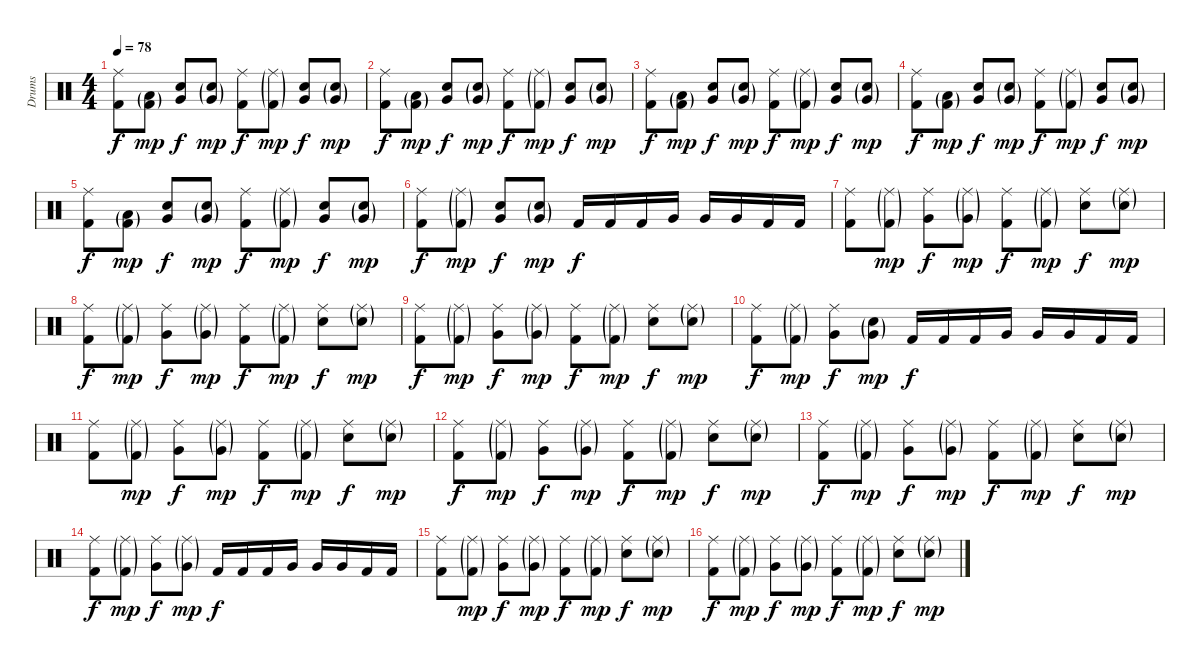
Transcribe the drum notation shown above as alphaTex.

\track ("Drums" "Drums") {instrument percussion}
\staff {score}
\articulation defaults
\ts (4 4)
\tempo 78
\clef neutral
\ks c
("Ride (middle)" "Kick (hit) 2").8{dy f} ("Low Floor Tom (hit)"{g} "Kick (hit) 2"{g}).8{dy mp} ("Snare (hit) 2" "Very Low Tom (hit)").8{dy f} ("Snare (hit) 2"{g} "Very Low Tom (hit)"{g}).8{dy mp} ("Ride (middle)" "Kick (hit) 2").8{dy f} ("Ride (middle)"{g} "Kick (hit) 2"{g}).8{dy mp} ("Snare (hit) 2" "Very Low Tom (hit)").8{dy f} ("Snare (hit) 2"{g} "Very Low Tom (hit)"{g}).8{dy mp} |
("Ride (middle)" "Kick (hit) 2").8{dy f} ("Low Floor Tom (hit)"{g} "Kick (hit) 2"{g}).8{dy mp} ("Snare (hit) 2" "Very Low Tom (hit)").8{dy f} ("Snare (hit) 2"{g} "Very Low Tom (hit)"{g}).8{dy mp} ("Ride (middle)" "Kick (hit) 2").8{dy f} ("Ride (middle)"{g} "Kick (hit) 2"{g}).8{dy mp} ("Snare (hit) 2" "Very Low Tom (hit)").8{dy f} ("Snare (hit) 2"{g} "Very Low Tom (hit)"{g}).8{dy mp} |
("Ride (middle)" "Kick (hit) 2").8{dy f} ("Low Floor Tom (hit)"{g} "Kick (hit) 2"{g}).8{dy mp} ("Snare (hit) 2" "Very Low Tom (hit)").8{dy f} ("Snare (hit) 2"{g} "Very Low Tom (hit)"{g}).8{dy mp} ("Ride (middle)" "Kick (hit) 2").8{dy f} ("Ride (middle)"{g} "Kick (hit) 2"{g}).8{dy mp} ("Snare (hit) 2" "Very Low Tom (hit)").8{dy f} ("Snare (hit) 2"{g} "Very Low Tom (hit)"{g}).8{dy mp} |
("Ride (middle)" "Kick (hit) 2").8{dy f} ("Low Floor Tom (hit)"{g} "Kick (hit) 2"{g}).8{dy mp} ("Snare (hit) 2" "Very Low Tom (hit)").8{dy f} ("Snare (hit) 2"{g} "Very Low Tom (hit)"{g}).8{dy mp} ("Ride (middle)" "Kick (hit) 2").8{dy f} ("Ride (middle)"{g} "Kick (hit) 2"{g}).8{dy mp} ("Snare (hit) 2" "Very Low Tom (hit)").8{dy f} ("Snare (hit) 2"{g} "Very Low Tom (hit)"{g}).8{dy mp} |
("Ride (middle)" "Kick (hit) 2").8{dy f} ("Low Floor Tom (hit)"{g} "Kick (hit) 2"{g}).8{dy mp} ("Snare (hit) 2" "Very Low Tom (hit)").8{dy f} ("Snare (hit) 2"{g} "Very Low Tom (hit)"{g}).8{dy mp} ("Ride (middle)" "Kick (hit) 2").8{dy f} ("Ride (middle)"{g} "Kick (hit) 2"{g}).8{dy mp} ("Snare (hit) 2" "Very Low Tom (hit)").8{dy f} ("Snare (hit) 2"{g} "Very Low Tom (hit)"{g}).8{dy mp} |
("Ride (middle)" "Kick (hit) 2").8{dy f} ("Ride (middle)"{g} "Kick (hit) 2"{g}).8{dy mp} ("Snare (hit) 2" "Very Low Tom (hit)").8{dy f} ("Snare (hit) 2"{g} "Very Low Tom (hit)"{g}).8{dy mp} "Kick (hit) 2".16{dy f} "Kick (hit) 2".16 "Kick (hit) 2".16 "Very Low Tom (hit)".16 "Very Low Tom (hit)".16 "Very Low Tom (hit)".16 "Kick (hit) 2".16 "Kick (hit) 2".16 |
("Ride (middle)" "Kick (hit) 2").8 ("Ride (middle)"{g} "Kick (hit) 2"{g}).8{dy mp} ("Ride (middle)" "Very Low Tom (hit)").8{dy f} ("Ride (middle)"{g} "Very Low Tom (hit)"{g}).8{dy mp} ("Ride (middle)" "Kick (hit) 2").8{dy f} ("Ride (middle)"{g} "Kick (hit) 2"{g}).8{dy mp} ("Ride (middle)" "Snare (hit) 2").8{dy f} ("Ride (middle)"{g} "Snare (hit) 2"{g}).8{dy mp} |
("Ride (middle)" "Kick (hit) 2").8{dy f} ("Ride (middle)"{g} "Kick (hit) 2"{g}).8{dy mp} ("Ride (middle)" "Very Low Tom (hit)").8{dy f} ("Ride (middle)"{g} "Very Low Tom (hit)"{g}).8{dy mp} ("Ride (middle)" "Kick (hit) 2").8{dy f} ("Ride (middle)"{g} "Kick (hit) 2"{g}).8{dy mp} ("Ride (middle)" "Snare (hit) 2").8{dy f} ("Ride (middle)"{g} "Snare (hit) 2"{g}).8{dy mp} |
("Ride (middle)" "Kick (hit) 2").8{dy f} ("Ride (middle)"{g} "Kick (hit) 2"{g}).8{dy mp} ("Ride (middle)" "Very Low Tom (hit)").8{dy f} ("Ride (middle)"{g} "Very Low Tom (hit)"{g}).8{dy mp} ("Ride (middle)" "Kick (hit) 2").8{dy f} ("Ride (middle)"{g} "Kick (hit) 2"{g}).8{dy mp} ("Ride (middle)" "Snare (hit) 2").8{dy f} ("Ride (middle)"{g} "Snare (hit) 2"{g}).8{dy mp} |
("Ride (middle)" "Kick (hit) 2").8{dy f} ("Ride (middle)"{g} "Kick (hit) 2"{g}).8{dy mp} ("Ride (middle)" "Very Low Tom (hit)").8{dy f} ("Snare (hit) 2"{g} "Very Low Tom (hit)"{g}).8{dy mp} "Kick (hit) 2".16{dy f} "Kick (hit) 2".16 "Kick (hit) 2".16 "Very Low Tom (hit)".16 "Very Low Tom (hit)".16 "Very Low Tom (hit)".16 "Kick (hit) 2".16 "Kick (hit) 2".16 |
("Ride (middle)" "Kick (hit) 2").8 ("Ride (middle)"{g} "Kick (hit) 2"{g}).8{dy mp} ("Ride (middle)" "Very Low Tom (hit)").8{dy f} ("Ride (middle)"{g} "Very Low Tom (hit)"{g}).8{dy mp} ("Ride (middle)" "Kick (hit) 2").8{dy f} ("Ride (middle)"{g} "Kick (hit) 2"{g}).8{dy mp} ("Ride (middle)" "Snare (hit) 2").8{dy f} ("Ride (middle)"{g} "Snare (hit) 2"{g}).8{dy mp} |
("Ride (middle)" "Kick (hit) 2").8{dy f} ("Ride (middle)"{g} "Kick (hit) 2"{g}).8{dy mp} ("Ride (middle)" "Very Low Tom (hit)").8{dy f} ("Ride (middle)"{g} "Very Low Tom (hit)"{g}).8{dy mp} ("Ride (middle)" "Kick (hit) 2").8{dy f} ("Ride (middle)"{g} "Kick (hit) 2"{g}).8{dy mp} ("Ride (middle)" "Snare (hit) 2").8{dy f} ("Ride (middle)"{g} "Snare (hit) 2"{g}).8{dy mp} |
("Ride (middle)" "Kick (hit) 2").8{dy f} ("Ride (middle)"{g} "Kick (hit) 2"{g}).8{dy mp} ("Ride (middle)" "Very Low Tom (hit)").8{dy f} ("Ride (middle)"{g} "Very Low Tom (hit)"{g}).8{dy mp} ("Ride (middle)" "Kick (hit) 2").8{dy f} ("Ride (middle)"{g} "Kick (hit) 2"{g}).8{dy mp} ("Ride (middle)" "Snare (hit) 2").8{dy f} ("Ride (middle)"{g} "Snare (hit) 2"{g}).8{dy mp} |
("Ride (middle)" "Kick (hit) 2").8{dy f} ("Ride (middle)"{g} "Kick (hit) 2"{g}).8{dy mp} ("Ride (middle)" "Very Low Tom (hit)").8{dy f} ("Ride (middle)"{g} "Very Low Tom (hit)"{g}).8{dy mp} "Kick (hit) 2".16{dy f} "Kick (hit) 2".16 "Kick (hit) 2".16 "Very Low Tom (hit)".16 "Very Low Tom (hit)".16 "Very Low Tom (hit)".16 "Kick (hit) 2".16 "Kick (hit) 2".16 |
("Ride (middle)" "Kick (hit) 2").8 ("Ride (middle)"{g} "Kick (hit) 2"{g}).8{dy mp} ("Ride (middle)" "Very Low Tom (hit)").8{dy f} ("Ride (middle)"{g} "Very Low Tom (hit)"{g}).8{dy mp} ("Ride (middle)" "Kick (hit) 2").8{dy f} ("Ride (middle)"{g} "Kick (hit) 2"{g}).8{dy mp} ("Ride (middle)" "Snare (hit) 2").8{dy f} ("Ride (middle)"{g} "Snare (hit) 2"{g}).8{dy mp} |
("Ride (middle)" "Kick (hit) 2").8{dy f} ("Ride (middle)"{g} "Kick (hit) 2"{g}).8{dy mp} ("Ride (middle)" "Very Low Tom (hit)").8{dy f} ("Ride (middle)"{g} "Very Low Tom (hit)"{g}).8{dy mp} ("Ride (middle)" "Kick (hit) 2").8{dy f} ("Ride (middle)"{g} "Kick (hit) 2"{g}).8{dy mp} ("Ride (middle)" "Snare (hit) 2").8{dy f} ("Ride (middle)"{g} "Snare (hit) 2"{g}).8{dy mp}
